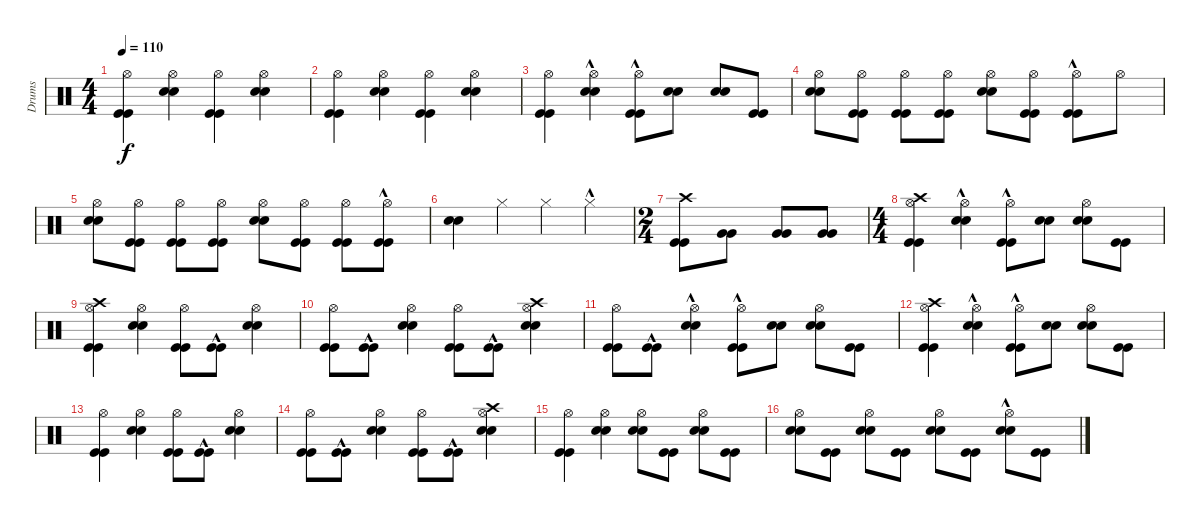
\track ("Drums" "Drums") {instrument percussion}
\staff {score}
\articulation defaults
\ts (4 4)
\tempo 110
\clef neutral
\ks c
("Kick (hit)" "Kick (hit)" "Hi-Hat (open)").4{dy f} ("Snare (hit) 2" "Snare (hit) 2" "Hi-Hat (open)").4 ("Kick (hit)" "Kick (hit)" "Hi-Hat (open)").4 ("Snare (hit) 2" "Snare (hit) 2" "Hi-Hat (open)").4 |
("Kick (hit)" "Kick (hit)" "Hi-Hat (open)").4 ("Snare (hit) 2" "Snare (hit) 2" "Hi-Hat (open)").4 ("Kick (hit)" "Kick (hit)" "Hi-Hat (open)").4 ("Snare (hit) 2" "Snare (hit) 2" "Hi-Hat (open)").4 |
("Kick (hit)" "Kick (hit)" "Hi-Hat (open)").4 ("Snare (hit) 2"{hac} "Snare (hit) 2"{hac} "Hi-Hat (open)").4 ("Kick (hit)"{hac} "Kick (hit)"{hac} "Hi-Hat (open)").8 ("Snare (hit) 2" "Snare (hit) 2").8 ("Snare (hit) 2" "Snare (hit) 2").8 ("Kick (hit)" "Kick (hit)").8 |
("Snare (hit) 2" "Snare (hit) 2" "Hi-Hat (open)").8 ("Kick (hit)" "Kick (hit)" "Hi-Hat (open)").8 ("Kick (hit)" "Kick (hit)" "Hi-Hat (open)").8 ("Kick (hit)" "Kick (hit)" "Hi-Hat (open)").8 ("Snare (hit) 2" "Snare (hit) 2" "Hi-Hat (open)").8 ("Kick (hit)" "Kick (hit)" "Hi-Hat (open)").8 ("Kick (hit)"{hac} "Kick (hit)"{hac} "Hi-Hat (open)").8 "Hi-Hat (open)".8 |
("Snare (hit) 2" "Snare (hit) 2" "Hi-Hat (open)").8 ("Kick (hit)" "Kick (hit)" "Hi-Hat (open)").8 ("Kick (hit)" "Kick (hit)" "Hi-Hat (open)").8 ("Kick (hit)" "Kick (hit)" "Hi-Hat (open)").8 ("Snare (hit) 2" "Snare (hit) 2" "Hi-Hat (open)").8 ("Kick (hit)" "Kick (hit)" "Hi-Hat (open)").8 ("Kick (hit)" "Kick (hit)" "Hi-Hat (open)").8 ("Kick (hit)" "Kick (hit)" "Hi-Hat (open)"{hac}).8 |
("Snare (hit) 2" "Snare (hit) 2").4 "Hi-Hat (closed)".4 "Hi-Hat (closed)".4 "Hi-Hat (closed)"{hac}.4 |
\ts (2 4)
("Kick (hit)" "Kick (hit)" "Crash high (hit)").8 ("Very Low Tom (hit)" "Very Low Tom (hit)").8 ("Very Low Tom (hit)" "Very Low Tom (hit)").8 ("Very Low Tom (hit)" "Very Low Tom (hit)").8 |
\ts (4 4)
("Kick (hit)" "Kick (hit)" "Hi-Hat (open)" "Crash high (hit)").4 ("Snare (hit) 2"{hac} "Snare (hit) 2"{hac} "Hi-Hat (open)").4 ("Kick (hit)"{hac} "Kick (hit)"{hac} "Hi-Hat (open)").8 ("Snare (hit) 2" "Snare (hit) 2").8 ("Snare (hit) 2" "Snare (hit) 2" "Hi-Hat (open)").8 ("Kick (hit)" "Kick (hit)").8 |
("Kick (hit)" "Kick (hit)" "Hi-Hat (open)" "Crash high (hit)").4 ("Snare (hit) 2" "Snare (hit) 2" "Hi-Hat (open)").4 ("Kick (hit)" "Kick (hit)" "Hi-Hat (open)").8 ("Kick (hit)"{hac} "Kick (hit)"{hac}).8 ("Snare (hit) 2" "Snare (hit) 2" "Hi-Hat (open)").4 |
("Kick (hit)" "Kick (hit)" "Hi-Hat (open)").8 ("Kick (hit)"{hac} "Kick (hit)"{hac}).8 ("Snare (hit) 2" "Snare (hit) 2" "Hi-Hat (open)").4 ("Kick (hit)" "Kick (hit)" "Hi-Hat (open)").8 ("Kick (hit)"{hac} "Kick (hit)"{hac}).8 ("Snare (hit) 2" "Snare (hit) 2" "Hi-Hat (open)" "Crash high (hit)").4 |
("Kick (hit)" "Kick (hit)" "Hi-Hat (open)").8 ("Kick (hit)"{hac} "Kick (hit)"{hac}).8 ("Snare (hit) 2"{hac} "Snare (hit) 2"{hac} "Hi-Hat (open)").4 ("Kick (hit)"{hac} "Kick (hit)"{hac} "Hi-Hat (open)").8 ("Snare (hit) 2" "Snare (hit) 2").8 ("Snare (hit) 2" "Snare (hit) 2" "Hi-Hat (open)").8 ("Kick (hit)" "Kick (hit)").8 |
("Kick (hit)" "Kick (hit)" "Hi-Hat (open)" "Crash high (hit)").4 ("Snare (hit) 2"{hac} "Snare (hit) 2"{hac} "Hi-Hat (open)").4 ("Kick (hit)"{hac} "Kick (hit)"{hac} "Hi-Hat (open)").8 ("Snare (hit) 2" "Snare (hit) 2").8 ("Snare (hit) 2" "Snare (hit) 2" "Hi-Hat (open)").8 ("Kick (hit)" "Kick (hit)").8 |
("Kick (hit)" "Kick (hit)" "Hi-Hat (open)").4 ("Snare (hit) 2" "Snare (hit) 2" "Hi-Hat (open)").4 ("Kick (hit)" "Kick (hit)" "Hi-Hat (open)").8 ("Kick (hit)"{hac} "Kick (hit)"{hac}).8 ("Snare (hit) 2" "Snare (hit) 2" "Hi-Hat (open)").4 |
("Kick (hit)" "Kick (hit)" "Hi-Hat (open)").8 ("Kick (hit)"{hac} "Kick (hit)"{hac}).8 ("Snare (hit) 2" "Snare (hit) 2" "Hi-Hat (open)").4 ("Kick (hit)" "Kick (hit)" "Hi-Hat (open)").8 ("Kick (hit)"{hac} "Kick (hit)"{hac}).8 ("Snare (hit) 2" "Snare (hit) 2" "Hi-Hat (open)" "Crash high (hit)").4 |
("Kick (hit)" "Kick (hit)" "Hi-Hat (open)").4 ("Snare (hit) 2" "Snare (hit) 2" "Hi-Hat (open)").4 ("Snare (hit) 2" "Snare (hit) 2" "Hi-Hat (open)").8 ("Kick (hit)" "Kick (hit)").8 ("Snare (hit) 2" "Snare (hit) 2" "Hi-Hat (open)").8 ("Kick (hit)" "Kick (hit)").8 |
("Snare (hit) 2" "Snare (hit) 2" "Hi-Hat (open)").8 ("Kick (hit)" "Kick (hit)").8 ("Snare (hit) 2" "Snare (hit) 2" "Hi-Hat (open)").8 ("Kick (hit)" "Kick (hit)").8 ("Snare (hit) 2" "Snare (hit) 2" "Hi-Hat (open)").8 ("Kick (hit)" "Kick (hit)").8 ("Snare (hit) 2"{hac} "Snare (hit) 2"{hac} "Hi-Hat (open)").8 ("Kick (hit)" "Kick (hit)").8
